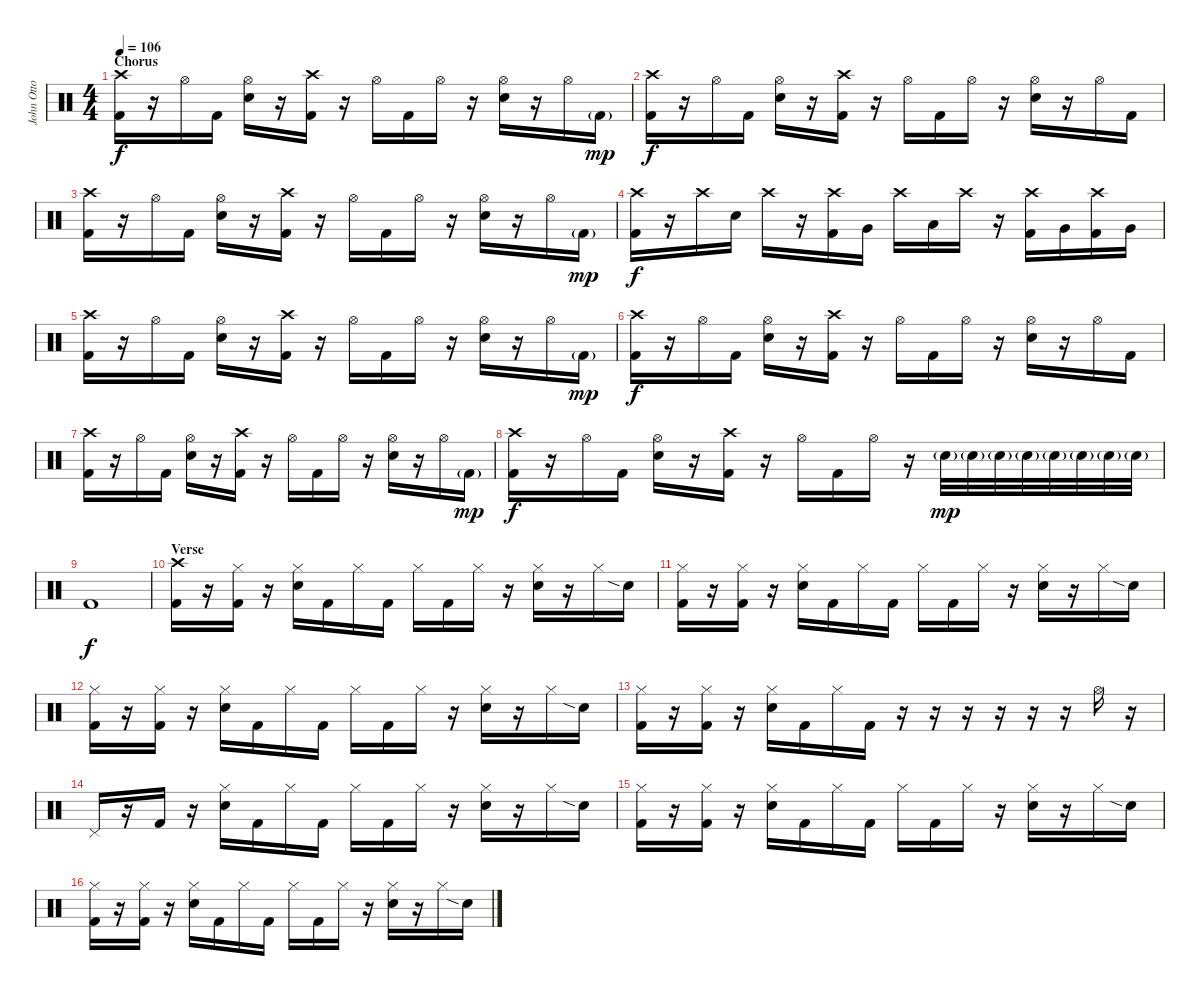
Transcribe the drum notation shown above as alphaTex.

\track ("John Otto" "John Otto") {instrument percussion}
\staff {score}
\articulation defaults
\ts (4 4)
\section ("" "Chorus")
\tempo 106
\clef neutral
\ks c
("Crash high (hit)" "Kick (hit) 2").16{dy f} r.16 "Hi-Hat (open)".16 "Kick (hit) 2".16 ("Hi-Hat (open)" "Snare (hit) 2").16 r.16 ("Crash high (hit)" "Kick (hit) 2").16 r.16 "Hi-Hat (open)".16 "Kick (hit) 2".16 "Hi-Hat (open)".16 r.16 ("Hi-Hat (open)" "Snare (hit) 2").16 r.16 "Hi-Hat (open)".16 "Kick (hit) 2"{g}.16{dy mp} |
("Crash high (hit)" "Kick (hit) 2").16{dy f} r.16 "Hi-Hat (open)".16 "Kick (hit) 2".16 ("Hi-Hat (open)" "Snare (hit) 2").16 r.16 ("Crash high (hit)" "Kick (hit) 2").16 r.16 "Hi-Hat (open)".16 "Kick (hit) 2".16 "Hi-Hat (open)".16 r.16 ("Hi-Hat (open)" "Snare (hit) 2").16 r.16 "Hi-Hat (open)".16 "Kick (hit) 2".16 |
("Crash high (hit)" "Kick (hit) 2").16 r.16 "Hi-Hat (open)".16 "Kick (hit) 2".16 ("Hi-Hat (open)" "Snare (hit) 2").16 r.16 ("Crash high (hit)" "Kick (hit) 2").16 r.16 "Hi-Hat (open)".16 "Kick (hit) 2".16 "Hi-Hat (open)".16 r.16 ("Hi-Hat (open)" "Snare (hit) 2").16 r.16 "Hi-Hat (open)".16 "Kick (hit) 2"{g}.16{dy mp} |
("Crash high (hit)" "Kick (hit) 2").16{dy f} r.16 "Crash high (hit)".16 "Snare (hit) 2".16 "Crash high (hit)".16 r.16 ("Crash high (hit)" "Kick (hit) 2").16 "Very Low Tom (hit)".16 "Crash high (hit)".16 "Low Tom (hit)".16 "Crash high (hit)".16 r.16 ("Crash high (hit)" "Kick (hit) 2").16 "Very Low Tom (hit)".16 ("Crash high (hit)" "Kick (hit) 2").16 "Very Low Tom (hit)".16 |
("Crash high (hit)" "Kick (hit) 2").16 r.16 "Hi-Hat (open)".16 "Kick (hit) 2".16 ("Hi-Hat (open)" "Snare (hit) 2").16 r.16 ("Crash high (hit)" "Kick (hit) 2").16 r.16 "Hi-Hat (open)".16 "Kick (hit) 2".16 "Hi-Hat (open)".16 r.16 ("Hi-Hat (open)" "Snare (hit) 2").16 r.16 "Hi-Hat (open)".16 "Kick (hit) 2"{g}.16{dy mp} |
("Crash high (hit)" "Kick (hit) 2").16{dy f} r.16 "Hi-Hat (open)".16 "Kick (hit) 2".16 ("Hi-Hat (open)" "Snare (hit) 2").16 r.16 ("Crash high (hit)" "Kick (hit) 2").16 r.16 "Hi-Hat (open)".16 "Kick (hit) 2".16 "Hi-Hat (open)".16 r.16 ("Hi-Hat (open)" "Snare (hit) 2").16 r.16 "Hi-Hat (open)".16 "Kick (hit) 2".16 |
("Crash high (hit)" "Kick (hit) 2").16 r.16 "Hi-Hat (open)".16 "Kick (hit) 2".16 ("Hi-Hat (open)" "Snare (hit) 2").16 r.16 ("Crash high (hit)" "Kick (hit) 2").16 r.16 "Hi-Hat (open)".16 "Kick (hit) 2".16 "Hi-Hat (open)".16 r.16 ("Hi-Hat (open)" "Snare (hit) 2").16 r.16 "Hi-Hat (open)".16 "Kick (hit) 2"{g}.16{dy mp} |
("Crash high (hit)" "Kick (hit) 2").16{dy f} r.16 "Hi-Hat (open)".16 "Kick (hit) 2".16 ("Hi-Hat (open)" "Snare (hit) 2").16 r.16 ("Crash high (hit)" "Kick (hit) 2").16 r.16 "Hi-Hat (open)".16 "Kick (hit) 2".16 "Hi-Hat (open)".16 r.16 "Snare (hit) 2"{g}.32{dy mp} "Snare (hit) 2"{g}.32 "Snare (hit) 2"{g}.32 "Snare (hit) 2"{g}.32 "Snare (hit) 2"{g}.32 "Snare (hit) 2"{g}.32 "Snare (hit) 2"{g}.32 "Snare (hit) 2"{g}.32 |
"Kick (hit) 2".1{dy f} |
\section ("" "Verse")
("Crash high (hit)" "Kick (hit) 2").16 r.16 ("Hi-Hat (closed)" "Kick (hit) 2").16 r.16 ("Hi-Hat (closed)" "Snare (hit) 2").16 "Kick (hit) 2".16 "Hi-Hat (closed)".16 "Kick (hit) 2".16 "Hi-Hat (closed)".16 "Kick (hit) 2".16 "Hi-Hat (closed)".16 r.16 ("Hi-Hat (closed)" "Snare (hit) 2").16 r.16 "Hi-Hat (closed)".16 "Snare (hit) 2"{sia}.16 |
("Hi-Hat (closed)" "Kick (hit) 2").16 r.16 ("Hi-Hat (closed)" "Kick (hit) 2").16 r.16 ("Hi-Hat (closed)" "Snare (hit) 2").16 "Kick (hit) 2".16 "Hi-Hat (closed)".16 "Kick (hit) 2".16 "Hi-Hat (closed)".16 "Kick (hit) 2".16 "Hi-Hat (closed)".16 r.16 ("Hi-Hat (closed)" "Snare (hit) 2").16 r.16 "Hi-Hat (closed)".16 "Snare (hit) 2"{sia}.16 |
("Hi-Hat (closed)" "Kick (hit) 2").16 r.16 ("Hi-Hat (closed)" "Kick (hit) 2").16 r.16 ("Hi-Hat (closed)" "Snare (hit) 2").16 "Kick (hit) 2".16 "Hi-Hat (closed)".16 "Kick (hit) 2".16 "Hi-Hat (closed)".16 "Kick (hit) 2".16 "Hi-Hat (closed)".16 r.16 ("Hi-Hat (closed)" "Snare (hit) 2").16 r.16 "Hi-Hat (closed)".16 "Snare (hit) 2"{sia}.16 |
("Hi-Hat (closed)" "Kick (hit) 2").16 r.16 ("Hi-Hat (closed)" "Kick (hit) 2").16 r.16 ("Hi-Hat (closed)" "Snare (hit) 2").16 "Kick (hit) 2".16 "Hi-Hat (closed)".16 "Kick (hit) 2".16 r.16 r.16 r.16 r.16 r.16 r.16 "Hi-Hat (open)".16 r.16 |
"Pedal Hi-Hat (hit)".16 r.16 "Kick (hit) 2".16 r.16 ("Hi-Hat (closed)" "Snare (hit) 2").16 "Kick (hit) 2".16 "Hi-Hat (closed)".16 "Kick (hit) 2".16 "Hi-Hat (closed)".16 "Kick (hit) 2".16 "Hi-Hat (closed)".16 r.16 ("Hi-Hat (closed)" "Snare (hit) 2").16 r.16 "Hi-Hat (closed)".16 "Snare (hit) 2"{sia}.16 |
("Hi-Hat (closed)" "Kick (hit) 2").16 r.16 ("Hi-Hat (closed)" "Kick (hit) 2").16 r.16 ("Hi-Hat (closed)" "Snare (hit) 2").16 "Kick (hit) 2".16 "Hi-Hat (closed)".16 "Kick (hit) 2".16 "Hi-Hat (closed)".16 "Kick (hit) 2".16 "Hi-Hat (closed)".16 r.16 ("Hi-Hat (closed)" "Snare (hit) 2").16 r.16 "Hi-Hat (closed)".16 "Snare (hit) 2"{sia}.16 |
("Hi-Hat (closed)" "Kick (hit) 2").16 r.16 ("Hi-Hat (closed)" "Kick (hit) 2").16 r.16 ("Hi-Hat (closed)" "Snare (hit) 2").16 "Kick (hit) 2".16 "Hi-Hat (closed)".16 "Kick (hit) 2".16 "Hi-Hat (closed)".16 "Kick (hit) 2".16 "Hi-Hat (closed)".16 r.16 ("Hi-Hat (closed)" "Snare (hit) 2").16 r.16 "Hi-Hat (closed)".16 "Snare (hit) 2"{sia}.16
